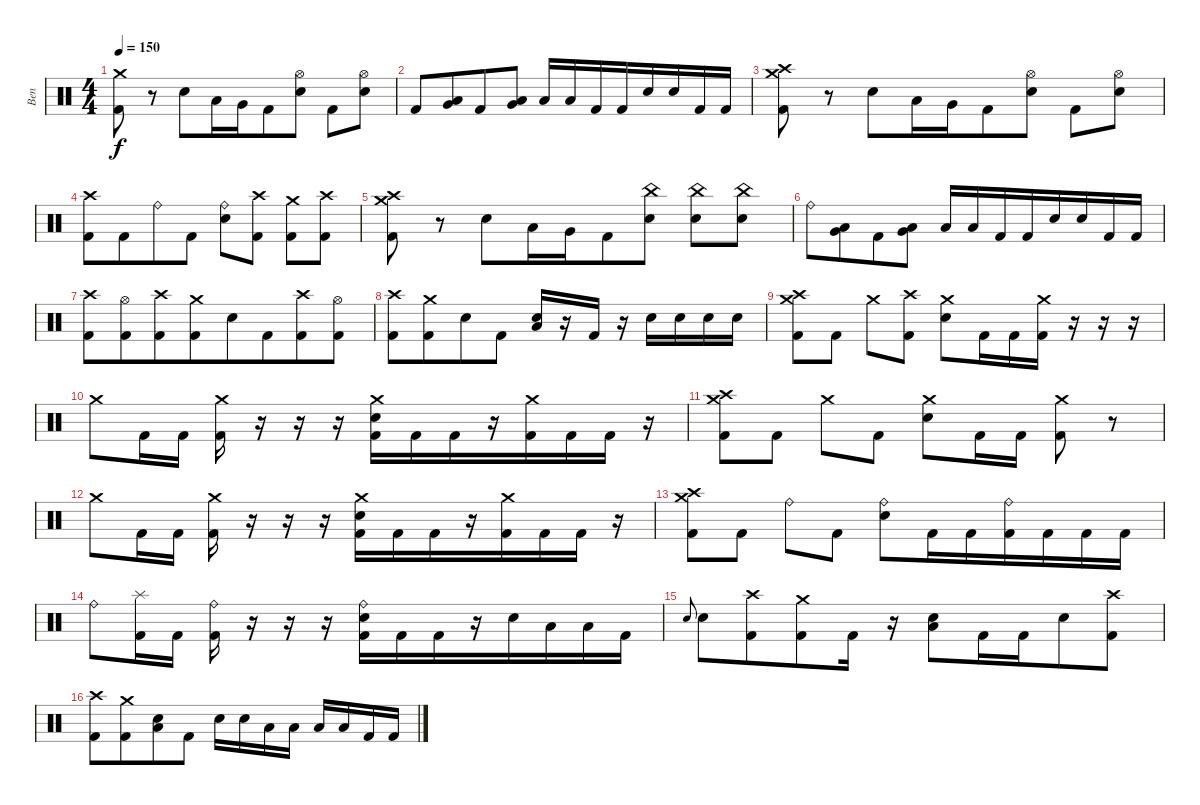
\track ("Ben" "Ben") {instrument percussion}
\staff {score}
\articulation defaults
\ts (4 4)
\tempo 150
\clef neutral
\ks c
("Crash medium (hit)" "Kick (hit) 2").8{dy f} r.8 "Electric Snare (hit)".8 "Low Tom (hit)".16 "Very Low Tom (hit)".16{beam merge} "Kick (hit) 2".8 ("Electric Snare (hit)" "Hi-Hat (open)").8 "Kick (hit) 2".8{beam merge} ("Electric Snare (hit)" "Hi-Hat (open)").8 |
"Kick (hit) 2".8 ("Low Floor Tom (hit)" "Very Low Tom (hit)").8{beam merge} "Kick (hit) 2".8{beam merge} ("Very Low Tom (hit)" "Low Floor Tom (hit)").8 "Low Tom (hit)".16{beam merge} "Low Tom (hit)".16{beam merge} "Kick (hit) 2".16 "Kick (hit) 2".16{beam merge} "Electric Snare (hit)".16{beam merge} "Electric Snare (hit)".16 "Kick (hit) 2".16{beam merge} "Kick (hit) 2".16 |
("Crash medium (hit)" "Crash high (hit)" "Kick (hit) 2").8 r.8 "Electric Snare (hit)".8 "Low Tom (hit)".16 "Very Low Tom (hit)".16{beam merge} "Kick (hit) 2".8 ("Electric Snare (hit)" "Hi-Hat (open)").8 "Kick (hit) 2".8{beam merge} ("Electric Snare (hit)" "Hi-Hat (open)").8 |
("Crash high (hit)" "Kick (hit) 2").8 "Kick (hit) 2".8{beam merge} "Ride (bell)".8 "Kick (hit) 2".8 ("Ride (bell)" "Electric Snare (hit)").8{beam merge} ("Crash high (hit)" "Kick (hit) 2").8 ("Crash medium (hit)" "Kick (hit) 2").8 ("Crash high (hit)" "Kick (hit) 2").8 |
("Crash medium (hit)" "Crash high (hit)" "Kick (hit) 2").8 r.8 "Electric Snare (hit)".8 "Low Tom (hit)".16 "Very Low Tom (hit)".16{beam merge} "Kick (hit) 2".8 ("Electric Snare (hit)" "China (hit)").8 ("Electric Snare (hit)" "China (hit)").8{beam merge} ("Electric Snare (hit)" "China (hit)").8 |
"Ride (bell)".8 ("Low Floor Tom (hit)" "Very Low Tom (hit)").8{beam merge} "Kick (hit) 2".8{beam merge} ("Very Low Tom (hit)" "Low Floor Tom (hit)").8 "Low Tom (hit)".16{beam merge} "Low Tom (hit)".16{beam merge} "Kick (hit) 2".16 "Kick (hit) 2".16{beam merge} "Electric Snare (hit)".16{beam merge} "Electric Snare (hit)".16 "Kick (hit) 2".16{beam merge} "Kick (hit) 2".16 |
("Crash high (hit)" "Kick (hit) 2").8 ("Hi-Hat (open)" "Kick (hit) 2").8{beam merge} ("Crash high (hit)" "Kick (hit) 2").8{beam merge} ("Crash medium (hit)" "Kick (hit) 2").8{beam merge} "Electric Snare (hit)".8{beam merge} "Kick (hit) 2".8{beam merge} ("Crash high (hit)" "Kick (hit) 2").8 ("Hi-Hat (open)" "Kick (hit) 2").8 |
("Crash high (hit)" "Kick (hit) 2").8{beam merge} ("Crash medium (hit)" "Kick (hit) 2").8{beam merge} "Electric Snare (hit)".8{beam merge} "Kick (hit) 2".8 ("Low Floor Tom (hit)" "Electric Snare (hit)").16{beam merge} r.16{beam merge} "Kick (hit) 2".16 r.16{beam merge} "Electric Snare (hit)".16{beam merge} "Electric Snare (hit)".16 "Electric Snare (hit)".16{beam merge} "Electric Snare (hit)".16 |
("Kick (hit) 2" "Crash high (hit)" "Crash medium (hit)").8 "Kick (hit) 2".8 "Crash medium (hit)".8{beam merge} ("Kick (hit) 2" "Crash high (hit)").8 ("Electric Snare (hit)" "Crash medium (hit)").8 "Kick (hit) 2".16{beam merge} "Kick (hit) 2".16{beam merge} ("Kick (hit) 2" "Crash medium (hit)").16 r.16 r.16 r.16 |
"Crash medium (hit)".8 "Kick (hit) 2".16 "Kick (hit) 2".16 ("Crash medium (hit)" "Kick (hit) 2").16 r.16{beam merge} r.16 r.16{beam merge} ("Crash medium (hit)" "Kick (hit) 2" "Electric Snare (hit)").16{beam merge} "Kick (hit) 2".16 "Kick (hit) 2".16{beam merge} r.16{beam merge} ("Crash medium (hit)" "Kick (hit) 2").16 "Kick (hit) 2".16 "Kick (hit) 2".16{beam merge} r.16 |
("Kick (hit) 2" "Crash high (hit)" "Crash medium (hit)").8 "Kick (hit) 2".8 "Crash medium (hit)".8{beam merge} "Kick (hit) 2".8 ("Electric Snare (hit)" "Crash medium (hit)").8 "Kick (hit) 2".16 "Kick (hit) 2".16 ("Kick (hit) 2" "Crash medium (hit)").8{beam merge} r.8 |
"Crash medium (hit)".8 "Kick (hit) 2".16 "Kick (hit) 2".16 ("Crash medium (hit)" "Kick (hit) 2").16 r.16{beam merge} r.16 r.16{beam merge} ("Crash medium (hit)" "Kick (hit) 2" "Electric Snare (hit)").16{beam merge} "Kick (hit) 2".16 "Kick (hit) 2".16{beam merge} r.16{beam merge} ("Crash medium (hit)" "Kick (hit) 2").16 "Kick (hit) 2".16 "Kick (hit) 2".16{beam merge} r.16 |
("Kick (hit) 2" "Crash high (hit)" "Crash medium (hit)").8 "Kick (hit) 2".8 "Ride (bell)".8{beam merge} "Kick (hit) 2".8 ("Electric Snare (hit)" "Ride (bell)").8 "Kick (hit) 2".16{beam merge} "Kick (hit) 2".16{beam merge} ("Kick (hit) 2" "Ride (bell)").16 "Kick (hit) 2".16 "Kick (hit) 2".16 "Kick (hit) 2".16 |
"Ride (bell)".8 ("Kick (hit) 2" "Splash (hit)").16 "Kick (hit) 2".16 ("Ride (bell)" "Kick (hit) 2").16 r.16{beam merge} r.16 r.16{beam merge} ("Ride (bell)" "Kick (hit) 2" "Electric Snare (hit)").16{beam merge} "Kick (hit) 2".16 "Kick (hit) 2".16{beam merge} r.16{beam merge} "Electric Snare (hit)".16 "Low Floor Tom (hit)".16 "Low Floor Tom (hit)".16{beam merge} "Kick (hit) 2".16 |
"Electric Snare (hit)".8{gr onbeat beam merge} "Electric Snare (hit)".8 ("Crash high (hit)" "Kick (hit) 2").8{beam merge} ("Crash medium (hit)" "Kick (hit) 2").8{beam merge} "Kick (hit) 2".16 r.16{beam merge} ("Low Floor Tom (hit)" "Electric Snare (hit)").8 "Kick (hit) 2".16{beam merge} "Kick (hit) 2".16{beam merge} "Electric Snare (hit)".8 ("Crash high (hit)" "Kick (hit) 2").8 |
("Crash high (hit)" "Kick (hit) 2").8{beam merge} ("Crash medium (hit)" "Kick (hit) 2").8{beam merge} ("Low Floor Tom (hit)" "Electric Snare (hit)").8{beam merge} "Kick (hit) 2".8 "Electric Snare (hit)".16 "Electric Snare (hit)".16{beam merge} "Low Tom (hit)".16{beam merge} "Low Tom (hit)".16 "Low Floor Tom (hit)".16 "Low Floor Tom (hit)".16 "Kick (hit) 2".16{beam merge} "Kick (hit) 2".16
